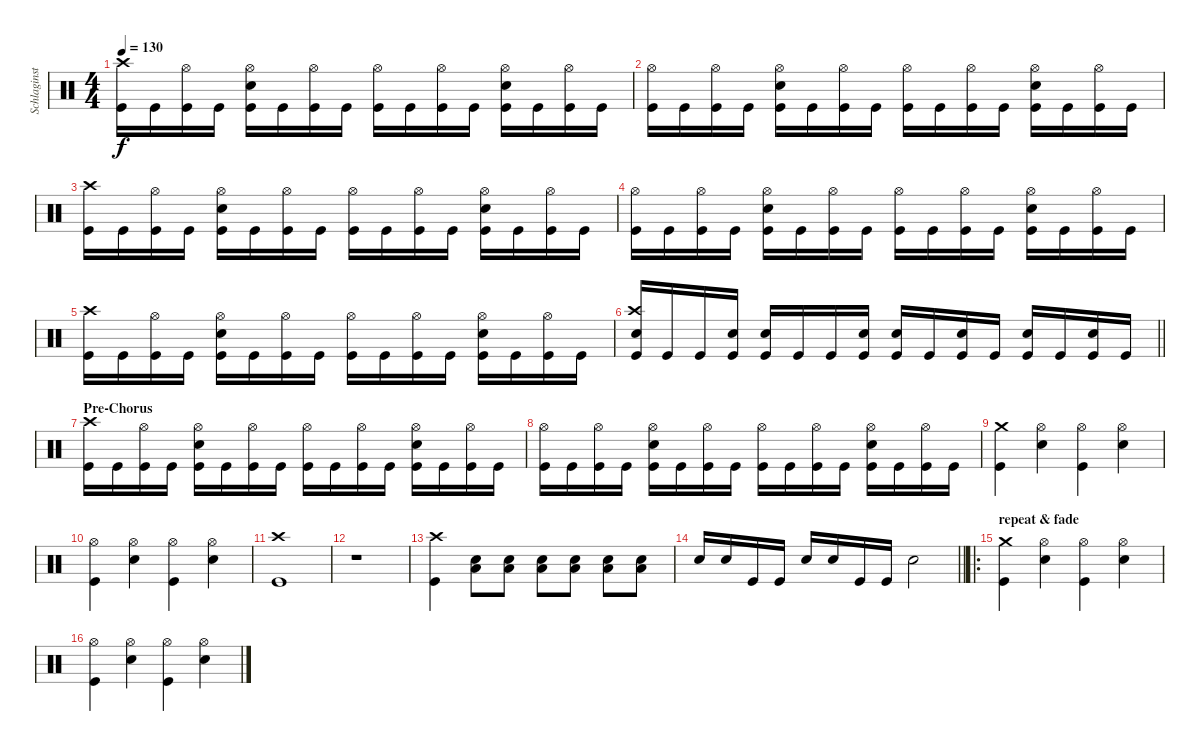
\track ("Schlaginstrumente - Auswahl" "Schlaginst") {instrument percussion}
\staff {score}
\articulation defaults
\ts (4 4)
\tempo 130
\clef neutral
\ks c
("Kick (hit)" "Crash high (hit)").16{dy f} "Kick (hit)".16 ("Kick (hit)" "Hi-Hat (open)").16 "Kick (hit)".16 ("Kick (hit)" "Snare (hit) 2" "Hi-Hat (open)").16 "Kick (hit)".16 ("Kick (hit)" "Hi-Hat (open)").16 "Kick (hit)".16 ("Kick (hit)" "Hi-Hat (open)").16 "Kick (hit)".16 ("Kick (hit)" "Hi-Hat (open)").16 "Kick (hit)".16 ("Kick (hit)" "Snare (hit) 2" "Hi-Hat (open)").16 "Kick (hit)".16 ("Kick (hit)" "Hi-Hat (open)").16 "Kick (hit)".16 |
("Kick (hit)" "Hi-Hat (open)").16 "Kick (hit)".16 ("Kick (hit)" "Hi-Hat (open)").16 "Kick (hit)".16 ("Kick (hit)" "Snare (hit) 2" "Hi-Hat (open)").16 "Kick (hit)".16 ("Kick (hit)" "Hi-Hat (open)").16 "Kick (hit)".16 ("Kick (hit)" "Hi-Hat (open)").16 "Kick (hit)".16 ("Kick (hit)" "Hi-Hat (open)").16 "Kick (hit)".16 ("Kick (hit)" "Snare (hit) 2" "Hi-Hat (open)").16 "Kick (hit)".16 ("Kick (hit)" "Hi-Hat (open)").16 "Kick (hit)".16 |
("Kick (hit)" "Crash high (hit)").16 "Kick (hit)".16 ("Kick (hit)" "Hi-Hat (open)").16 "Kick (hit)".16 ("Kick (hit)" "Snare (hit) 2" "Hi-Hat (open)").16 "Kick (hit)".16 ("Kick (hit)" "Hi-Hat (open)").16 "Kick (hit)".16 ("Kick (hit)" "Hi-Hat (open)").16 "Kick (hit)".16 ("Kick (hit)" "Hi-Hat (open)").16 "Kick (hit)".16 ("Kick (hit)" "Snare (hit) 2" "Hi-Hat (open)").16 "Kick (hit)".16 ("Kick (hit)" "Hi-Hat (open)").16 "Kick (hit)".16 |
("Kick (hit)" "Hi-Hat (open)").16 "Kick (hit)".16 ("Kick (hit)" "Hi-Hat (open)").16 "Kick (hit)".16 ("Kick (hit)" "Snare (hit) 2" "Hi-Hat (open)").16 "Kick (hit)".16 ("Kick (hit)" "Hi-Hat (open)").16 "Kick (hit)".16 ("Kick (hit)" "Hi-Hat (open)").16 "Kick (hit)".16 ("Kick (hit)" "Hi-Hat (open)").16 "Kick (hit)".16 ("Kick (hit)" "Snare (hit) 2" "Hi-Hat (open)").16 "Kick (hit)".16 ("Kick (hit)" "Hi-Hat (open)").16 "Kick (hit)".16 |
("Kick (hit)" "Crash high (hit)").16 "Kick (hit)".16 ("Kick (hit)" "Hi-Hat (open)").16 "Kick (hit)".16 ("Kick (hit)" "Snare (hit) 2" "Hi-Hat (open)").16 "Kick (hit)".16 ("Kick (hit)" "Hi-Hat (open)").16 "Kick (hit)".16 ("Kick (hit)" "Hi-Hat (open)").16 "Kick (hit)".16 ("Kick (hit)" "Hi-Hat (open)").16 "Kick (hit)".16 ("Kick (hit)" "Snare (hit) 2" "Hi-Hat (open)").16 "Kick (hit)".16 ("Kick (hit)" "Hi-Hat (open)").16 "Kick (hit)".16 |
\barLineRight lightlight
("Kick (hit)" "Crash high (hit)" "Snare (hit) 2").16 "Kick (hit)".16 "Kick (hit)".16 ("Kick (hit)" "Snare (hit) 2").16 ("Kick (hit)" "Snare (hit) 2").16 "Kick (hit)".16 "Kick (hit)".16 ("Kick (hit)" "Snare (hit) 2").16 ("Kick (hit)" "Snare (hit) 2").16 "Kick (hit)".16 ("Kick (hit)" "Snare (hit) 2").16 "Kick (hit)".16 ("Kick (hit)" "Snare (hit) 2").16 "Kick (hit)".16 ("Kick (hit)" "Snare (hit) 2").16 "Kick (hit)".16 |
\section ("" "Pre-Chorus")
("Kick (hit)" "Crash high (hit)").16 "Kick (hit)".16 ("Kick (hit)" "Hi-Hat (open)").16 "Kick (hit)".16 ("Kick (hit)" "Snare (hit) 2" "Hi-Hat (open)").16 "Kick (hit)".16 ("Kick (hit)" "Hi-Hat (open)").16 "Kick (hit)".16 ("Kick (hit)" "Hi-Hat (open)").16 "Kick (hit)".16 ("Kick (hit)" "Hi-Hat (open)").16 "Kick (hit)".16 ("Kick (hit)" "Snare (hit) 2" "Hi-Hat (open)").16 "Kick (hit)".16 ("Kick (hit)" "Hi-Hat (open)").16 "Kick (hit)".16 |
("Kick (hit)" "Hi-Hat (open)").16 "Kick (hit)".16 ("Kick (hit)" "Hi-Hat (open)").16 "Kick (hit)".16 ("Kick (hit)" "Snare (hit) 2" "Hi-Hat (open)").16 "Kick (hit)".16 ("Kick (hit)" "Hi-Hat (open)").16 "Kick (hit)".16 ("Kick (hit)" "Hi-Hat (open)").16 "Kick (hit)".16 ("Kick (hit)" "Hi-Hat (open)").16 "Kick (hit)".16 ("Kick (hit)" "Snare (hit) 2" "Hi-Hat (open)").16 "Kick (hit)".16 ("Kick (hit)" "Hi-Hat (open)").16 "Kick (hit)".16 |
("Crash medium (hit)" "Kick (hit)").4 ("Hi-Hat (open)" "Snare (hit) 2").4 ("Hi-Hat (open)" "Kick (hit)").4 ("Hi-Hat (open)" "Snare (hit) 2").4 |
("Hi-Hat (open)" "Kick (hit)").4 ("Hi-Hat (open)" "Snare (hit) 2").4 ("Hi-Hat (open)" "Kick (hit)").4 ("Hi-Hat (open)" "Snare (hit) 2").4 |
("Kick (hit)" "Crash high (hit)").1 |
r.1 |
("Kick (hit)" "Crash high (hit)").4 ("Snare (hit) 2" "Low Floor Tom (hit)").8 ("Snare (hit) 2" "Low Floor Tom (hit)").8 ("Snare (hit) 2" "Low Floor Tom (hit)").8 ("Snare (hit) 2" "Low Floor Tom (hit)").8 ("Snare (hit) 2" "Low Floor Tom (hit)").8 ("Snare (hit) 2" "Low Floor Tom (hit)").8 |
\barLineRight lightlight "Snare (hit) 2".16 "Snare (hit) 2".16 "Kick (hit)".16 "Kick (hit)".16 "Snare (hit) 2".16 "Snare (hit) 2".16 "Kick (hit)".16 "Kick (hit)".16 "Snare (hit) 2".2
|
\ro
\section ("" "repeat & fade")
("Crash medium (hit)" "Kick (hit)").4 ("Hi-Hat (open)" "Snare (hit) 2").4 ("Hi-Hat (open)" "Kick (hit)").4 ("Hi-Hat (open)" "Snare (hit) 2").4 |
("Hi-Hat (open)" "Kick (hit)").4 ("Hi-Hat (open)" "Snare (hit) 2").4 ("Hi-Hat (open)" "Kick (hit)").4 ("Hi-Hat (open)" "Snare (hit) 2").4
